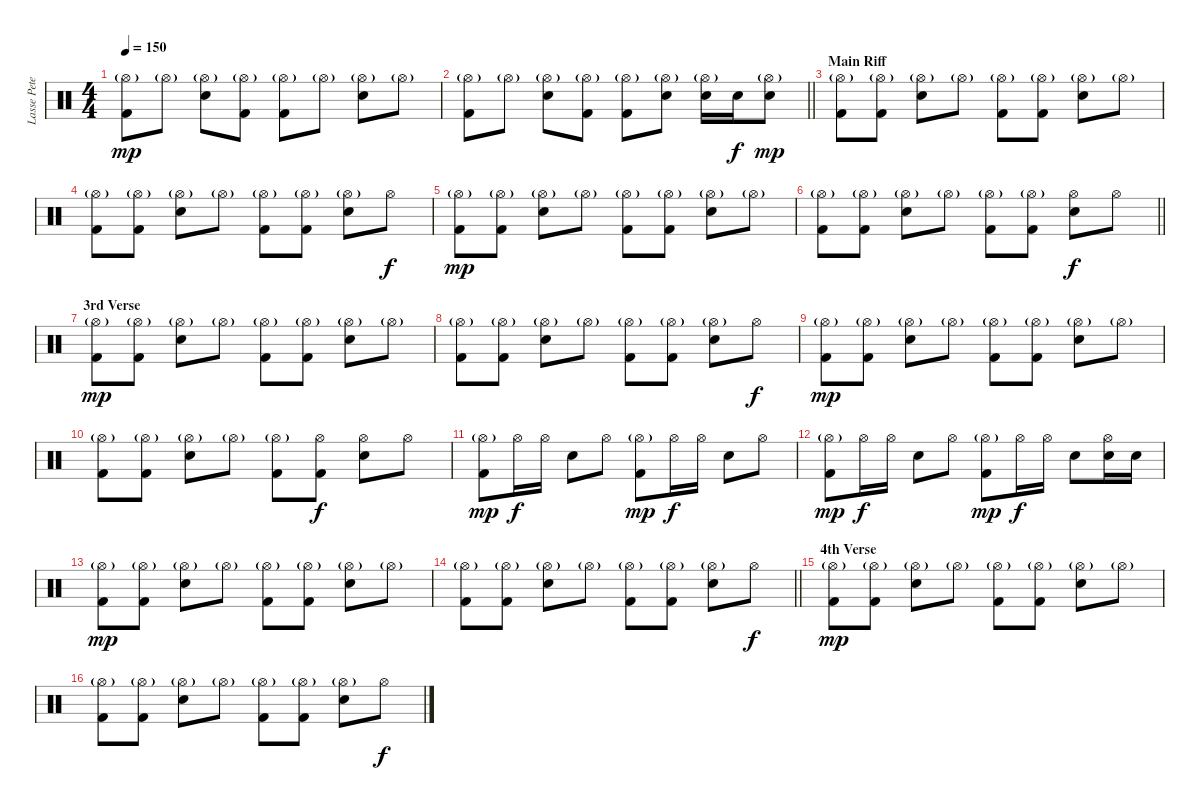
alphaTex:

\track ("Lasse Peterson" "Lasse Pete") {instrument percussion}
\staff {score}
\articulation defaults
\ts (4 4)
\tempo 150
\clef neutral
\ks c
("Kick (hit) 2" "Hi-Hat (open)"{g}).8{dy mp} "Hi-Hat (open)"{g}.8 ("Electric Snare (hit)" "Hi-Hat (open)"{g}).8 ("Kick (hit) 2" "Hi-Hat (open)"{g}).8 ("Kick (hit) 2" "Hi-Hat (open)"{g}).8 "Hi-Hat (open)"{g}.8 ("Electric Snare (hit)" "Hi-Hat (open)"{g}).8 "Hi-Hat (open)"{g}.8 |
\barLineRight lightlight
("Kick (hit) 2" "Hi-Hat (open)"{g}).8 "Hi-Hat (open)"{g}.8 ("Electric Snare (hit)" "Hi-Hat (open)"{g}).8 ("Kick (hit) 2" "Hi-Hat (open)"{g}).8 ("Kick (hit) 2" "Hi-Hat (open)"{g}).8 ("Electric Snare (hit)" "Hi-Hat (open)"{g}).8 ("Electric Snare (hit)" "Hi-Hat (open)"{g}).16 "Electric Snare (hit)".16{dy f} ("Electric Snare (hit)" "Hi-Hat (open)"{g}).8{dy mp} |
\section ("" "Main Riff")
("Kick (hit) 2" "Hi-Hat (open)"{g}).8 ("Kick (hit) 2" "Hi-Hat (open)"{g}).8 ("Electric Snare (hit)" "Hi-Hat (open)"{g}).8 "Hi-Hat (open)"{g}.8 ("Kick (hit) 2" "Hi-Hat (open)"{g}).8 ("Kick (hit) 2" "Hi-Hat (open)"{g}).8 ("Electric Snare (hit)" "Hi-Hat (open)"{g}).8 "Hi-Hat (open)"{g}.8 |
("Kick (hit) 2" "Hi-Hat (open)"{g}).8 ("Kick (hit) 2" "Hi-Hat (open)"{g}).8 ("Electric Snare (hit)" "Hi-Hat (open)"{g}).8 "Hi-Hat (open)"{g}.8 ("Kick (hit) 2" "Hi-Hat (open)"{g}).8 ("Kick (hit) 2" "Hi-Hat (open)"{g}).8 ("Electric Snare (hit)" "Hi-Hat (open)"{g}).8 "Hi-Hat (open)".8{dy f} |
("Kick (hit) 2" "Hi-Hat (open)"{g}).8{dy mp} ("Kick (hit) 2" "Hi-Hat (open)"{g}).8 ("Electric Snare (hit)" "Hi-Hat (open)"{g}).8 "Hi-Hat (open)"{g}.8 ("Kick (hit) 2" "Hi-Hat (open)"{g}).8 ("Kick (hit) 2" "Hi-Hat (open)"{g}).8 ("Electric Snare (hit)" "Hi-Hat (open)"{g}).8 "Hi-Hat (open)"{g}.8 |
\barLineRight lightlight
("Kick (hit) 2" "Hi-Hat (open)"{g}).8 ("Kick (hit) 2" "Hi-Hat (open)"{g}).8 ("Electric Snare (hit)" "Hi-Hat (open)"{g}).8 "Hi-Hat (open)"{g}.8 ("Kick (hit) 2" "Hi-Hat (open)"{g}).8 ("Kick (hit) 2" "Hi-Hat (open)"{g}).8 ("Electric Snare (hit)" "Hi-Hat (open)").8{dy f} "Hi-Hat (open)".8 |
\section ("" "3rd Verse")
("Kick (hit) 2" "Hi-Hat (open)"{g}).8{dy mp} ("Kick (hit) 2" "Hi-Hat (open)"{g}).8 ("Electric Snare (hit)" "Hi-Hat (open)"{g}).8 "Hi-Hat (open)"{g}.8 ("Kick (hit) 2" "Hi-Hat (open)"{g}).8 ("Kick (hit) 2" "Hi-Hat (open)"{g}).8 ("Electric Snare (hit)" "Hi-Hat (open)"{g}).8 "Hi-Hat (open)"{g}.8 |
("Kick (hit) 2" "Hi-Hat (open)"{g}).8 ("Kick (hit) 2" "Hi-Hat (open)"{g}).8 ("Electric Snare (hit)" "Hi-Hat (open)"{g}).8 "Hi-Hat (open)"{g}.8 ("Kick (hit) 2" "Hi-Hat (open)"{g}).8 ("Kick (hit) 2" "Hi-Hat (open)"{g}).8 ("Electric Snare (hit)" "Hi-Hat (open)"{g}).8 "Hi-Hat (open)".8{dy f} |
("Kick (hit) 2" "Hi-Hat (open)"{g}).8{dy mp} ("Kick (hit) 2" "Hi-Hat (open)"{g}).8 ("Electric Snare (hit)" "Hi-Hat (open)"{g}).8 "Hi-Hat (open)"{g}.8 ("Kick (hit) 2" "Hi-Hat (open)"{g}).8 ("Kick (hit) 2" "Hi-Hat (open)"{g}).8 ("Electric Snare (hit)" "Hi-Hat (open)"{g}).8 "Hi-Hat (open)"{g}.8 |
("Kick (hit) 2" "Hi-Hat (open)"{g}).8 ("Kick (hit) 2" "Hi-Hat (open)"{g}).8 ("Electric Snare (hit)" "Hi-Hat (open)"{g}).8 "Hi-Hat (open)"{g}.8 ("Kick (hit) 2" "Hi-Hat (open)"{g}).8 ("Kick (hit) 2" "Hi-Hat (open)").8{dy f} ("Electric Snare (hit)" "Hi-Hat (open)").8 "Hi-Hat (open)".8 |
("Kick (hit) 2" "Hi-Hat (open)"{g}).8{dy mp} "Hi-Hat (open)".16{dy f} "Hi-Hat (open)".16 "Electric Snare (hit)".8 "Hi-Hat (open)".8 ("Kick (hit) 2" "Hi-Hat (open)"{g}).8{dy mp} "Hi-Hat (open)".16{dy f} "Hi-Hat (open)".16 "Electric Snare (hit)".8 "Hi-Hat (open)".8 |
("Kick (hit) 2" "Hi-Hat (open)"{g}).8{dy mp} "Hi-Hat (open)".16{dy f} "Hi-Hat (open)".16 "Electric Snare (hit)".8 "Hi-Hat (open)".8 ("Kick (hit) 2" "Hi-Hat (open)"{g}).8{dy mp} "Hi-Hat (open)".16{dy f} "Hi-Hat (open)".16 "Electric Snare (hit)".8 ("Electric Snare (hit)" "Hi-Hat (open)").16 "Electric Snare (hit)".16 |
("Kick (hit) 2" "Hi-Hat (open)"{g}).8{dy mp} ("Kick (hit) 2" "Hi-Hat (open)"{g}).8 ("Electric Snare (hit)" "Hi-Hat (open)"{g}).8 "Hi-Hat (open)"{g}.8 ("Kick (hit) 2" "Hi-Hat (open)"{g}).8 ("Kick (hit) 2" "Hi-Hat (open)"{g}).8 ("Electric Snare (hit)" "Hi-Hat (open)"{g}).8 "Hi-Hat (open)"{g}.8 |
\barLineRight lightlight
("Kick (hit) 2" "Hi-Hat (open)"{g}).8 ("Kick (hit) 2" "Hi-Hat (open)"{g}).8 ("Electric Snare (hit)" "Hi-Hat (open)"{g}).8 "Hi-Hat (open)"{g}.8 ("Kick (hit) 2" "Hi-Hat (open)"{g}).8 ("Kick (hit) 2" "Hi-Hat (open)"{g}).8 ("Electric Snare (hit)" "Hi-Hat (open)"{g}).8 "Hi-Hat (open)".8{dy f} |
\section ("" "4th Verse")
("Kick (hit) 2" "Hi-Hat (open)"{g}).8{dy mp} ("Kick (hit) 2" "Hi-Hat (open)"{g}).8 ("Electric Snare (hit)" "Hi-Hat (open)"{g}).8 "Hi-Hat (open)"{g}.8 ("Kick (hit) 2" "Hi-Hat (open)"{g}).8 ("Kick (hit) 2" "Hi-Hat (open)"{g}).8 ("Electric Snare (hit)" "Hi-Hat (open)"{g}).8 "Hi-Hat (open)"{g}.8 |
("Kick (hit) 2" "Hi-Hat (open)"{g}).8 ("Kick (hit) 2" "Hi-Hat (open)"{g}).8 ("Electric Snare (hit)" "Hi-Hat (open)"{g}).8 "Hi-Hat (open)"{g}.8 ("Kick (hit) 2" "Hi-Hat (open)"{g}).8 ("Kick (hit) 2" "Hi-Hat (open)"{g}).8 ("Electric Snare (hit)" "Hi-Hat (open)"{g}).8 "Hi-Hat (open)".8{dy f}
